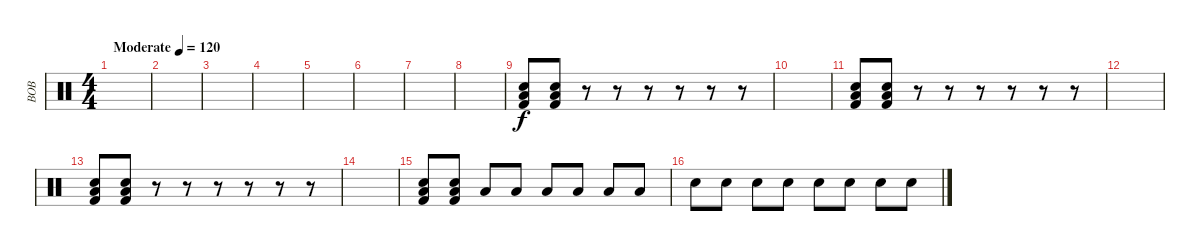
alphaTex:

\track ("BOB" "BOB") {instrument percussion}
\staff {score}
\articulation defaults
\ts (4 4)
\tempo (120 "Moderate")
\clef neutral
\ks c
|
|
|
|
|
|
|
|
("Electric Snare (hit)" "Low Tom (hit)" "Kick (hit) 2").8 ("Electric Snare (hit)" "Low Tom (hit)" "Kick (hit) 2").8 r.8 r.8 r.8 r.8 r.8 r.8 |
|
("Electric Snare (hit)" "Low Tom (hit)" "Kick (hit) 2").8 ("Electric Snare (hit)" "Low Tom (hit)" "Kick (hit) 2").8 r.8 r.8 r.8 r.8 r.8 r.8 |
|
("Electric Snare (hit)" "Low Tom (hit)" "Kick (hit) 2").8 ("Electric Snare (hit)" "Low Tom (hit)" "Kick (hit) 2").8 r.8 r.8 r.8 r.8 r.8 r.8 |
|
("Electric Snare (hit)" "Low Tom (hit)" "Kick (hit) 2").8 ("Electric Snare (hit)" "Low Tom (hit)" "Kick (hit) 2").8 "Low Tom (hit)".8 "Low Tom (hit)".8 "Low Tom (hit)".8 "Low Tom (hit)".8 "Low Tom (hit)".8 "Low Tom (hit)".8 |
"Electric Snare (hit)".8 "Electric Snare (hit)".8 "Electric Snare (hit)".8 "Electric Snare (hit)".8 "Electric Snare (hit)".8 "Electric Snare (hit)".8 "Electric Snare (hit)".8 "Electric Snare (hit)".8
